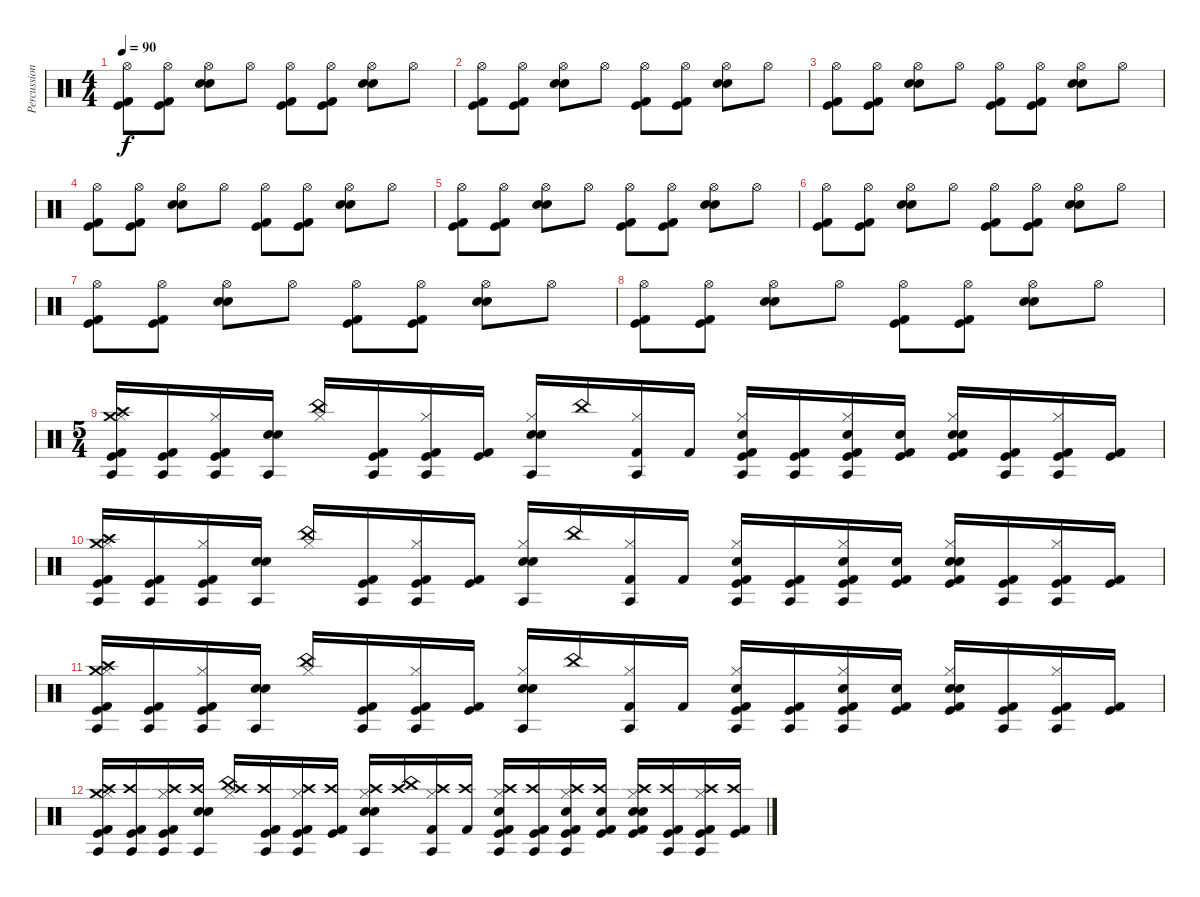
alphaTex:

\track ("Percussion" "Percussion") {instrument percussion}
\staff {score}
\articulation defaults
\ts (4 4)
\tempo 90
\clef neutral
\ks c
("Kick (hit) 2" "Kick (hit)" "Hi-Hat (open)").8{dy f} ("Kick (hit) 2" "Kick (hit)" "Hi-Hat (open)").8 ("Snare (hit) 2" "Electric Snare (hit)" "Hi-Hat (open)").8 "Hi-Hat (open)".8 ("Kick (hit) 2" "Kick (hit)" "Hi-Hat (open)").8 ("Kick (hit) 2" "Kick (hit)" "Hi-Hat (open)").8 ("Snare (hit) 2" "Electric Snare (hit)" "Hi-Hat (open)").8 "Hi-Hat (open)".8 |
("Kick (hit) 2" "Kick (hit)" "Hi-Hat (open)").8 ("Kick (hit) 2" "Kick (hit)" "Hi-Hat (open)").8 ("Snare (hit) 2" "Electric Snare (hit)" "Hi-Hat (open)").8 "Hi-Hat (open)".8 ("Kick (hit) 2" "Kick (hit)" "Hi-Hat (open)").8 ("Kick (hit) 2" "Kick (hit)" "Hi-Hat (open)").8 ("Snare (hit) 2" "Electric Snare (hit)" "Hi-Hat (open)").8 "Hi-Hat (open)".8 |
("Kick (hit) 2" "Kick (hit)" "Hi-Hat (open)").8 ("Kick (hit) 2" "Kick (hit)" "Hi-Hat (open)").8 ("Snare (hit) 2" "Electric Snare (hit)" "Hi-Hat (open)").8 "Hi-Hat (open)".8 ("Kick (hit) 2" "Kick (hit)" "Hi-Hat (open)").8 ("Kick (hit) 2" "Kick (hit)" "Hi-Hat (open)").8 ("Snare (hit) 2" "Electric Snare (hit)" "Hi-Hat (open)").8 "Hi-Hat (open)".8 |
("Kick (hit) 2" "Kick (hit)" "Hi-Hat (open)").8 ("Kick (hit) 2" "Kick (hit)" "Hi-Hat (open)").8 ("Snare (hit) 2" "Electric Snare (hit)" "Hi-Hat (open)").8 "Hi-Hat (open)".8 ("Kick (hit) 2" "Kick (hit)" "Hi-Hat (open)").8 ("Kick (hit) 2" "Kick (hit)" "Hi-Hat (open)").8 ("Snare (hit) 2" "Electric Snare (hit)" "Hi-Hat (open)").8 "Hi-Hat (open)".8 |
("Kick (hit) 2" "Kick (hit)" "Hi-Hat (open)").8 ("Kick (hit) 2" "Kick (hit)" "Hi-Hat (open)").8 ("Snare (hit) 2" "Electric Snare (hit)" "Hi-Hat (open)").8 "Hi-Hat (open)".8 ("Kick (hit) 2" "Kick (hit)" "Hi-Hat (open)").8 ("Kick (hit) 2" "Kick (hit)" "Hi-Hat (open)").8 ("Snare (hit) 2" "Electric Snare (hit)" "Hi-Hat (open)").8 "Hi-Hat (open)".8 |
("Kick (hit) 2" "Kick (hit)" "Hi-Hat (open)").8 ("Kick (hit) 2" "Kick (hit)" "Hi-Hat (open)").8 ("Snare (hit) 2" "Electric Snare (hit)" "Hi-Hat (open)").8 "Hi-Hat (open)".8 ("Kick (hit) 2" "Kick (hit)" "Hi-Hat (open)").8 ("Kick (hit) 2" "Kick (hit)" "Hi-Hat (open)").8 ("Snare (hit) 2" "Electric Snare (hit)" "Hi-Hat (open)").8 "Hi-Hat (open)".8 |
("Kick (hit) 2" "Kick (hit)" "Hi-Hat (open)").8 ("Kick (hit) 2" "Kick (hit)" "Hi-Hat (open)").8 ("Snare (hit) 2" "Electric Snare (hit)" "Hi-Hat (open)").8 "Hi-Hat (open)".8 ("Kick (hit) 2" "Kick (hit)" "Hi-Hat (open)").8 ("Kick (hit) 2" "Kick (hit)" "Hi-Hat (open)").8 ("Snare (hit) 2" "Electric Snare (hit)" "Hi-Hat (open)").8 "Hi-Hat (open)".8 |
("Kick (hit) 2" "Kick (hit)" "Hi-Hat (open)").8 ("Kick (hit) 2" "Kick (hit)" "Hi-Hat (open)").8 ("Snare (hit) 2" "Electric Snare (hit)" "Hi-Hat (open)").8 "Hi-Hat (open)".8 ("Kick (hit) 2" "Kick (hit)" "Hi-Hat (open)").8 ("Kick (hit) 2" "Kick (hit)" "Hi-Hat (open)").8 ("Snare (hit) 2" "Electric Snare (hit)" "Hi-Hat (open)").8 "Hi-Hat (open)".8 |
\ts (5 4)
("Kick (hit) 2" "Kick (hit)" "Crash high (hit)" "Crash medium (hit)" "Hi-Hat (closed)" "Agogo tow (hit)").16 ("Kick (hit) 2" "Kick (hit)" "Agogo tow (hit)").16 ("Kick (hit) 2" "Kick (hit)" "Hi-Hat (closed)" "Agogo tow (hit)").16 ("Snare (hit) 2" "Electric Snare (hit)" "Agogo tow (hit)").16 ("China (hit)" "Hi-Hat (closed)").16 ("Kick (hit) 2" "Kick (hit)" "Agogo tow (hit)").16 ("Kick (hit) 2" "Kick (hit)" "Hi-Hat (closed)" "Agogo tow (hit)").16 ("Kick (hit) 2" "Kick (hit)").16 ("Snare (hit) 2" "Electric Snare (hit)" "Hi-Hat (closed)" "Agogo tow (hit)").16 "China (hit)".16 ("Kick (hit) 2" "Hi-Hat (closed)" "Agogo tow (hit)").16 "Kick (hit) 2".16 ("Kick (hit) 2" "Kick (hit)" "Electric Snare (hit)" "Hi-Hat (closed)" "Agogo tow (hit)").16 ("Kick (hit) 2" "Kick (hit)" "Agogo tow (hit)").16 ("Kick (hit) 2" "Kick (hit)" "Snare (hit) 2" "Hi-Hat (closed)" "Agogo tow (hit)").16 ("Kick (hit) 2" "Kick (hit)" "Snare (hit) 2").16 ("Kick (hit) 2" "Kick (hit)" "Electric Snare (hit)" "Snare (hit) 2" "Hi-Hat (closed)").16 ("Kick (hit) 2" "Kick (hit)" "Agogo tow (hit)").16 ("Kick (hit) 2" "Kick (hit)" "Hi-Hat (closed)" "Agogo tow (hit)").16 ("Kick (hit) 2" "Kick (hit)").16 |
("Kick (hit) 2" "Kick (hit)" "Crash high (hit)" "Crash medium (hit)" "Hi-Hat (closed)" "Agogo tow (hit)").16 ("Kick (hit) 2" "Kick (hit)" "Agogo tow (hit)").16 ("Kick (hit) 2" "Kick (hit)" "Hi-Hat (closed)" "Agogo tow (hit)").16 ("Snare (hit) 2" "Electric Snare (hit)" "Agogo tow (hit)").16 ("China (hit)" "Hi-Hat (closed)").16 ("Kick (hit) 2" "Kick (hit)" "Agogo tow (hit)").16 ("Kick (hit) 2" "Kick (hit)" "Hi-Hat (closed)" "Agogo tow (hit)").16 ("Kick (hit) 2" "Kick (hit)").16 ("Snare (hit) 2" "Electric Snare (hit)" "Hi-Hat (closed)" "Agogo tow (hit)").16 "China (hit)".16 ("Kick (hit) 2" "Hi-Hat (closed)" "Agogo tow (hit)").16 "Kick (hit) 2".16 ("Kick (hit) 2" "Kick (hit)" "Electric Snare (hit)" "Hi-Hat (closed)" "Agogo tow (hit)").16 ("Kick (hit) 2" "Kick (hit)" "Agogo tow (hit)").16 ("Kick (hit) 2" "Kick (hit)" "Snare (hit) 2" "Hi-Hat (closed)" "Agogo tow (hit)").16 ("Kick (hit) 2" "Kick (hit)" "Snare (hit) 2").16 ("Kick (hit) 2" "Kick (hit)" "Electric Snare (hit)" "Snare (hit) 2" "Hi-Hat (closed)").16 ("Kick (hit) 2" "Kick (hit)" "Agogo tow (hit)").16 ("Kick (hit) 2" "Kick (hit)" "Hi-Hat (closed)" "Agogo tow (hit)").16 ("Kick (hit) 2" "Kick (hit)").16 |
("Kick (hit) 2" "Kick (hit)" "Crash high (hit)" "Crash medium (hit)" "Hi-Hat (closed)" "Agogo tow (hit)").16 ("Kick (hit) 2" "Kick (hit)" "Agogo tow (hit)").16 ("Kick (hit) 2" "Kick (hit)" "Hi-Hat (closed)" "Agogo tow (hit)").16 ("Snare (hit) 2" "Electric Snare (hit)" "Agogo tow (hit)").16 ("China (hit)" "Hi-Hat (closed)").16 ("Kick (hit) 2" "Kick (hit)" "Agogo tow (hit)").16 ("Kick (hit) 2" "Kick (hit)" "Hi-Hat (closed)" "Agogo tow (hit)").16 ("Kick (hit) 2" "Kick (hit)").16 ("Snare (hit) 2" "Electric Snare (hit)" "Hi-Hat (closed)" "Agogo tow (hit)").16 "China (hit)".16 ("Kick (hit) 2" "Hi-Hat (closed)" "Agogo tow (hit)").16 "Kick (hit) 2".16 ("Kick (hit) 2" "Kick (hit)" "Electric Snare (hit)" "Hi-Hat (closed)" "Agogo tow (hit)").16 ("Kick (hit) 2" "Kick (hit)" "Agogo tow (hit)").16 ("Kick (hit) 2" "Kick (hit)" "Snare (hit) 2" "Hi-Hat (closed)" "Agogo tow (hit)").16 ("Kick (hit) 2" "Kick (hit)" "Snare (hit) 2").16 ("Kick (hit) 2" "Kick (hit)" "Electric Snare (hit)" "Snare (hit) 2" "Hi-Hat (closed)").16 ("Kick (hit) 2" "Kick (hit)" "Agogo tow (hit)").16 ("Kick (hit) 2" "Kick (hit)" "Hi-Hat (closed)" "Agogo tow (hit)").16 ("Kick (hit) 2" "Kick (hit)").16 |
("Kick (hit) 2" "Kick (hit)" "Crash high (hit)" "Crash medium (hit)" "Hi-Hat (closed)" "Agogo tow (hit)").16 ("Kick (hit) 2" "Kick (hit)" "Crash high (hit)" "Agogo tow (hit)").16 ("Kick (hit) 2" "Kick (hit)" "Crash high (hit)" "Hi-Hat (closed)" "Agogo tow (hit)").16 ("Snare (hit) 2" "Electric Snare (hit)" "Crash high (hit)" "Agogo tow (hit)").16 ("China (hit)" "Crash high (hit)" "Hi-Hat (closed)").16 ("Kick (hit) 2" "Kick (hit)" "Crash high (hit)" "Agogo tow (hit)").16 ("Kick (hit) 2" "Kick (hit)" "Crash high (hit)" "Hi-Hat (closed)" "Agogo tow (hit)").16 ("Kick (hit) 2" "Kick (hit)" "Crash high (hit)").16 ("Snare (hit) 2" "Electric Snare (hit)" "Crash high (hit)" "Hi-Hat (closed)" "Agogo tow (hit)").16 ("China (hit)" "Crash high (hit)").16 ("Kick (hit) 2" "Crash high (hit)" "Hi-Hat (closed)" "Agogo tow (hit)").16 ("Kick (hit) 2" "Crash high (hit)").16 ("Kick (hit) 2" "Kick (hit)" "Crash high (hit)" "Electric Snare (hit)" "Hi-Hat (closed)" "Agogo tow (hit)").16 ("Kick (hit) 2" "Kick (hit)" "Crash high (hit)" "Agogo tow (hit)").16 ("Kick (hit) 2" "Kick (hit)" "Crash high (hit)" "Snare (hit) 2" "Hi-Hat (closed)" "Agogo tow (hit)").16 ("Kick (hit) 2" "Kick (hit)" "Crash high (hit)" "Snare (hit) 2").16 ("Kick (hit) 2" "Kick (hit)" "Electric Snare (hit)" "Snare (hit) 2" "Hi-Hat (closed)" "Crash high (hit)").16 ("Kick (hit) 2" "Kick (hit)" "Crash high (hit)" "Agogo tow (hit)").16 ("Kick (hit) 2" "Kick (hit)" "Crash high (hit)" "Hi-Hat (closed)" "Agogo tow (hit)").16 ("Kick (hit) 2" "Kick (hit)" "Crash high (hit)").16
